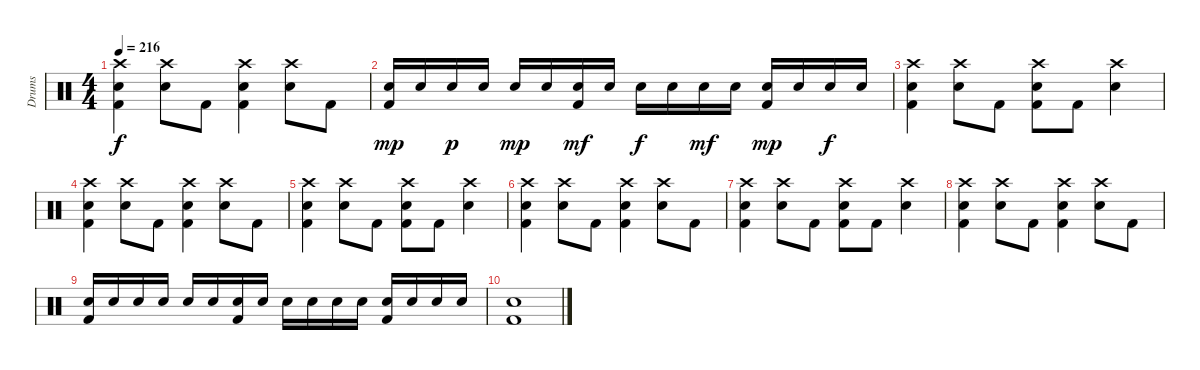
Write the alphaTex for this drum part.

\track ("Drums" "Drums") {instrument percussion}
\staff {score}
\articulation defaults
\ts (4 4)
\tempo 216
\clef neutral
\ks c
("Kick (hit) 2" "Snare (hit) 2" "Crash high (hit)").4{dy f} ("Snare (hit) 2" "Crash high (hit)").8 "Kick (hit) 2".8 ("Kick (hit) 2" "Snare (hit) 2" "Crash high (hit)").4 ("Snare (hit) 2" "Crash high (hit)").8 "Kick (hit) 2".8 |
("Kick (hit) 2" "Snare (hit) 2").16{dy mp} "Snare (hit) 2".16 "Snare (hit) 2".16{dy p} "Snare (hit) 2".16 "Snare (hit) 2".16{dy mp} "Snare (hit) 2".16 ("Kick (hit) 2" "Snare (hit) 2").16{dy mf} "Snare (hit) 2".16 "Snare (hit) 2".16{dy f} "Snare (hit) 2".16 "Snare (hit) 2".16{dy mf} "Snare (hit) 2".16 ("Kick (hit) 2" "Snare (hit) 2").16{dy mp} "Snare (hit) 2".16 "Snare (hit) 2".16{dy f} "Snare (hit) 2".16 |
("Kick (hit) 2" "Snare (hit) 2" "Crash high (hit)").4 ("Snare (hit) 2" "Crash high (hit)").8 "Kick (hit) 2".8 ("Kick (hit) 2" "Snare (hit) 2" "Crash high (hit)").8 "Kick (hit) 2".8 ("Snare (hit) 2" "Crash high (hit)").4 |
("Kick (hit) 2" "Snare (hit) 2" "Crash high (hit)").4 ("Snare (hit) 2" "Crash high (hit)").8 "Kick (hit) 2".8 ("Kick (hit) 2" "Snare (hit) 2" "Crash high (hit)").4 ("Snare (hit) 2" "Crash high (hit)").8 "Kick (hit) 2".8 |
("Kick (hit) 2" "Snare (hit) 2" "Crash high (hit)").4 ("Snare (hit) 2" "Crash high (hit)").8 "Kick (hit) 2".8 ("Kick (hit) 2" "Snare (hit) 2" "Crash high (hit)").8 "Kick (hit) 2".8 ("Snare (hit) 2" "Crash high (hit)").4 |
("Kick (hit) 2" "Snare (hit) 2" "Crash high (hit)").4 ("Snare (hit) 2" "Crash high (hit)").8 "Kick (hit) 2".8 ("Kick (hit) 2" "Snare (hit) 2" "Crash high (hit)").4 ("Snare (hit) 2" "Crash high (hit)").8 "Kick (hit) 2".8 |
("Kick (hit) 2" "Snare (hit) 2" "Crash high (hit)").4 ("Snare (hit) 2" "Crash high (hit)").8 "Kick (hit) 2".8 ("Kick (hit) 2" "Snare (hit) 2" "Crash high (hit)").8 "Kick (hit) 2".8 ("Snare (hit) 2" "Crash high (hit)").4 |
("Kick (hit) 2" "Snare (hit) 2" "Crash high (hit)").4 ("Snare (hit) 2" "Crash high (hit)").8 "Kick (hit) 2".8 ("Kick (hit) 2" "Snare (hit) 2" "Crash high (hit)").4 ("Snare (hit) 2" "Crash high (hit)").8 "Kick (hit) 2".8 |
("Kick (hit) 2" "Snare (hit) 2").16 "Snare (hit) 2".16 "Snare (hit) 2".16 "Snare (hit) 2".16 "Snare (hit) 2".16 "Snare (hit) 2".16 ("Kick (hit) 2" "Snare (hit) 2").16 "Snare (hit) 2".16 "Snare (hit) 2".16 "Snare (hit) 2".16 "Snare (hit) 2".16 "Snare (hit) 2".16 ("Kick (hit) 2" "Snare (hit) 2").16 "Snare (hit) 2".16 "Snare (hit) 2".16 "Snare (hit) 2".16 |
("Kick (hit) 2" "Snare (hit) 2").1
